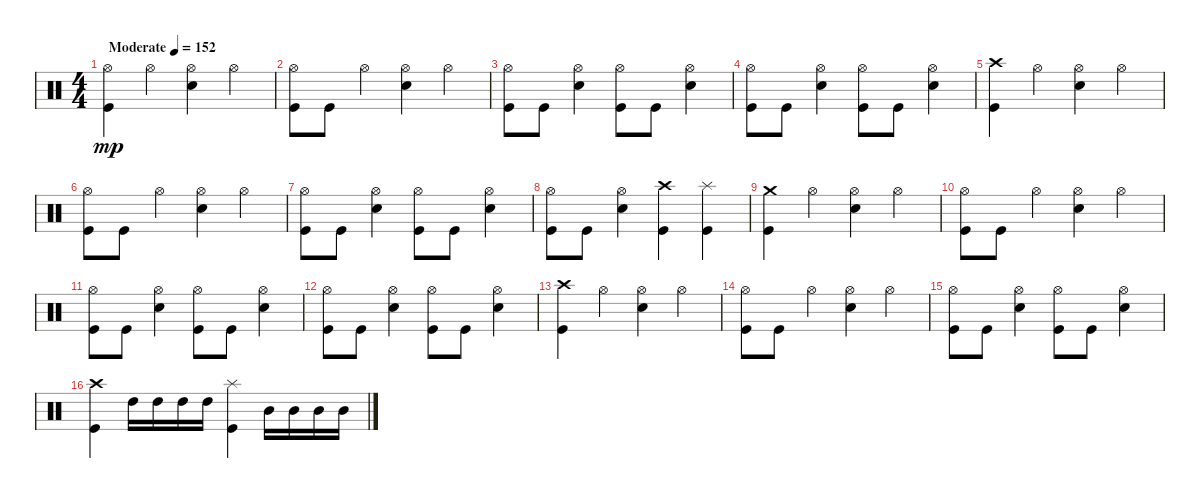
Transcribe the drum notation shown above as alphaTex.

\track "" {instrument percussion}
\staff {score}
\articulation defaults
\ts (4 4)
\tempo (152 "Moderate")
\clef neutral
\ks c
("Kick (hit)" "Hi-Hat (open)").4{dy mp} "Hi-Hat (open)".4 ("Hi-Hat (open)" "Snare (hit) 2").4 "Hi-Hat (open)".4 |
("Kick (hit)" "Hi-Hat (open)").8 "Kick (hit)".8 "Hi-Hat (open)".4 ("Hi-Hat (open)" "Snare (hit) 2").4 "Hi-Hat (open)".4 |
("Kick (hit)" "Hi-Hat (open)").8 "Kick (hit)".8 ("Snare (hit) 2" "Hi-Hat (open)").4 ("Hi-Hat (open)" "Kick (hit)").8 "Kick (hit)".8 ("Snare (hit) 2" "Hi-Hat (open)").4 |
("Hi-Hat (open)" "Kick (hit)").8 "Kick (hit)".8 ("Snare (hit) 2" "Hi-Hat (open)").4 ("Hi-Hat (open)" "Kick (hit)").8 "Kick (hit)".8 ("Snare (hit) 2" "Hi-Hat (open)").4 |
("Kick (hit)" "Crash high (hit)").4 "Hi-Hat (open)".4 ("Hi-Hat (open)" "Snare (hit) 2").4 "Hi-Hat (open)".4 |
("Kick (hit)" "Hi-Hat (open)").8 "Kick (hit)".8 "Hi-Hat (open)".4 ("Hi-Hat (open)" "Snare (hit) 2").4 "Hi-Hat (open)".4 |
("Kick (hit)" "Hi-Hat (open)").8 "Kick (hit)".8 ("Snare (hit) 2" "Hi-Hat (open)").4 ("Hi-Hat (open)" "Kick (hit)").8 "Kick (hit)".8 ("Snare (hit) 2" "Hi-Hat (open)").4 |
("Hi-Hat (open)" "Kick (hit)").8 "Kick (hit)".8 ("Snare (hit) 2" "Hi-Hat (open)").4 ("Crash high (hit)" "Kick (hit)").4 ("Kick (hit)" "Splash (hit)").4 |
("Kick (hit)" "Crash medium (hit)").4 "Hi-Hat (open)".4 ("Hi-Hat (open)" "Snare (hit) 2").4 "Hi-Hat (open)".4 |
("Kick (hit)" "Hi-Hat (open)").8 "Kick (hit)".8 "Hi-Hat (open)".4 ("Hi-Hat (open)" "Snare (hit) 2").4 "Hi-Hat (open)".4 |
("Kick (hit)" "Hi-Hat (open)").8 "Kick (hit)".8 ("Snare (hit) 2" "Hi-Hat (open)").4 ("Hi-Hat (open)" "Kick (hit)").8 "Kick (hit)".8 ("Snare (hit) 2" "Hi-Hat (open)").4 |
("Hi-Hat (open)" "Kick (hit)").8 "Kick (hit)".8 ("Snare (hit) 2" "Hi-Hat (open)").4 ("Hi-Hat (open)" "Kick (hit)").8 "Kick (hit)".8 ("Snare (hit) 2" "Hi-Hat (open)").4 |
("Kick (hit)" "Crash high (hit)").4 "Hi-Hat (open)".4 ("Hi-Hat (open)" "Snare (hit) 2").4 "Hi-Hat (open)".4 |
("Kick (hit)" "Hi-Hat (open)").8 "Kick (hit)".8 "Hi-Hat (open)".4 ("Hi-Hat (open)" "Snare (hit) 2").4 "Hi-Hat (open)".4 |
("Kick (hit)" "Hi-Hat (open)").8 "Kick (hit)".8 ("Snare (hit) 2" "Hi-Hat (open)").4 ("Hi-Hat (open)" "Kick (hit)").8 "Kick (hit)".8 ("Snare (hit) 2" "Hi-Hat (open)").4 |
("Crash high (hit)" "Kick (hit)").4 "High Tom (hit)".16 "High Tom (hit)".16 "High Tom (hit)".16 "High Tom (hit)".16 ("Splash (hit)" "Kick (hit)").4 "Mid Tom (hit)".16 "Mid Tom (hit)".16 "Mid Tom (hit)".16 "Mid Tom (hit)".16
